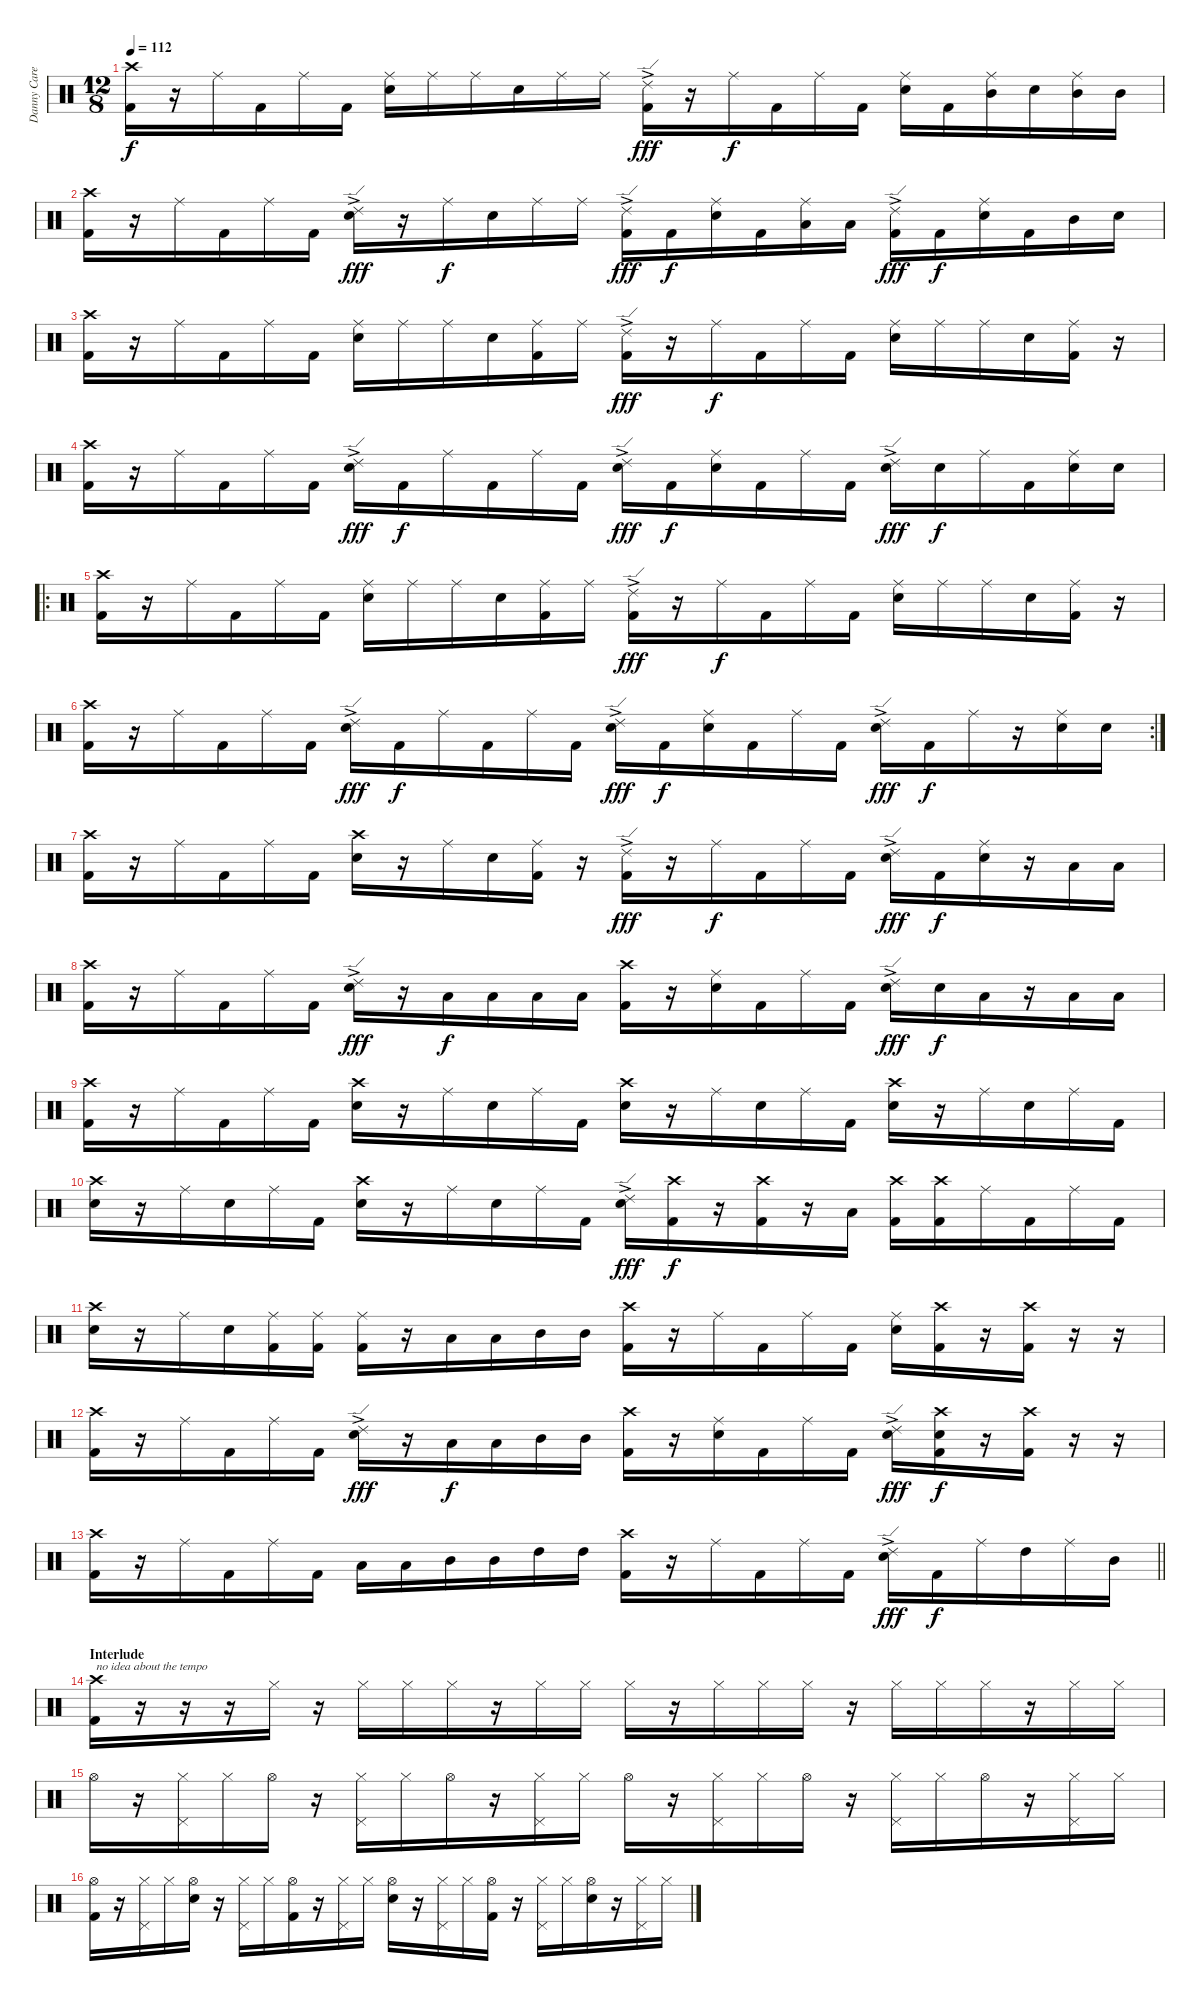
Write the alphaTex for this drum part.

\track ("Danny Carey" "Danny Care") {instrument percussion}
\staff {score}
\articulation defaults
\ts (12 8)
\tempo 112
\clef neutral
\ks c
("Crash high (hit)" "Kick (hit) 2").16{dy f} r.16 "Ride (middle)".16 "Kick (hit) 2".16 "Ride (middle)".16 "Kick (hit) 2".16 ("Ride (middle)" "Electric Snare (hit)").16 "Ride (middle)".16 "Ride (middle)".16 "Electric Snare (hit)".16 "Ride (middle)".16 "Ride (middle)".16 ("Ride (edge) 2"{ac} "Kick (hit) 2").16{dy fff} r.16 "Ride (middle)".16{dy f} "Kick (hit) 2".16 "Ride (middle)".16 "Kick (hit) 2".16 ("Ride (middle)" "Electric Snare (hit)").16 "Kick (hit) 2".16 ("Ride (middle)" "Mid Tom (hit)").16 "Electric Snare (hit)".16 ("Ride (middle)" "Mid Tom (hit)").16 "Mid Tom (hit)".16 |
("Crash high (hit)" "Kick (hit) 2").16 r.16 "Ride (middle)".16 "Kick (hit) 2".16 "Ride (middle)".16 "Kick (hit) 2".16 ("Ride (edge) 2"{ac} "Electric Snare (hit)").16{dy fff} r.16 "Ride (middle)".16{dy f} "Electric Snare (hit)".16 "Ride (middle)".16 "Ride (middle)".16 ("Ride (edge) 2"{ac} "Kick (hit) 2").16{dy fff} "Kick (hit) 2".16{dy f} ("Ride (middle)" "Electric Snare (hit)").16 "Kick (hit) 2".16 ("Ride (middle)" "Low Tom (hit)").16 "Low Tom (hit)".16 ("Ride (edge) 2"{ac} "Kick (hit) 2").16{dy fff} "Kick (hit) 2".16{dy f} ("Ride (middle)" "Electric Snare (hit)").16 "Kick (hit) 2".16 "Mid Tom (hit)".16 "Electric Snare (hit)".16 |
("Crash high (hit)" "Kick (hit) 2").16 r.16 "Ride (middle)".16 "Kick (hit) 2".16 "Ride (middle)".16 "Kick (hit) 2".16 ("Ride (middle)" "Electric Snare (hit)").16 "Ride (middle)".16 "Ride (middle)".16 "Electric Snare (hit)".16 ("Ride (middle)" "Kick (hit) 2").16 "Ride (middle)".16 ("Ride (edge) 2"{ac} "Kick (hit) 2").16{dy fff} r.16 "Ride (middle)".16{dy f} "Kick (hit) 2".16 "Ride (middle)".16 "Kick (hit) 2".16 ("Ride (middle)" "Electric Snare (hit)").16 "Ride (middle)".16 "Ride (middle)".16 "Electric Snare (hit)".16 ("Ride (middle)" "Kick (hit) 2").16 r.16 |
("Crash high (hit)" "Kick (hit) 2").16 r.16 "Ride (middle)".16 "Kick (hit) 2".16 "Ride (middle)".16 "Kick (hit) 2".16 ("Ride (edge) 2"{ac} "Electric Snare (hit)").16{dy fff} "Kick (hit) 2".16{dy f} "Ride (middle)".16 "Kick (hit) 2".16 "Ride (middle)".16 "Kick (hit) 2".16 ("Ride (edge) 2"{ac} "Electric Snare (hit)").16{dy fff} "Kick (hit) 2".16{dy f} ("Ride (middle)" "Electric Snare (hit)").16 "Kick (hit) 2".16 "Ride (middle)".16 "Kick (hit) 2".16 ("Ride (edge) 2"{ac} "Electric Snare (hit)").16{dy fff} "Electric Snare (hit)".16{dy f} "Ride (middle)".16 "Kick (hit) 2".16 ("Ride (middle)" "Electric Snare (hit)").16 "Electric Snare (hit)".16 |
\ro
("Crash high (hit)" "Kick (hit) 2").16{volume 16} r.16 "Ride (middle)".16 "Kick (hit) 2".16 "Ride (middle)".16 "Kick (hit) 2".16 ("Ride (middle)" "Electric Snare (hit)").16 "Ride (middle)".16 "Ride (middle)".16 "Electric Snare (hit)".16 ("Ride (middle)" "Kick (hit) 2").16 "Ride (middle)".16 ("Ride (edge) 2"{ac} "Kick (hit) 2").16{dy fff} r.16 "Ride (middle)".16{dy f} "Kick (hit) 2".16 "Ride (middle)".16 "Kick (hit) 2".16 ("Ride (middle)" "Electric Snare (hit)").16 "Ride (middle)".16 "Ride (middle)".16 "Electric Snare (hit)".16 ("Ride (middle)" "Kick (hit) 2").16 r.16 |
\rc 2
("Crash high (hit)" "Kick (hit) 2").16 r.16 "Ride (middle)".16 "Kick (hit) 2".16 "Ride (middle)".16 "Kick (hit) 2".16 ("Ride (edge) 2"{ac} "Electric Snare (hit)").16{dy fff} "Kick (hit) 2".16{dy f} "Ride (middle)".16 "Kick (hit) 2".16 "Ride (middle)".16 "Kick (hit) 2".16 ("Ride (edge) 2"{ac} "Electric Snare (hit)").16{dy fff} "Kick (hit) 2".16{dy f} ("Ride (middle)" "Electric Snare (hit)").16 "Kick (hit) 2".16 "Ride (middle)".16 "Kick (hit) 2".16 ("Ride (edge) 2"{ac} "Electric Snare (hit)").16{dy fff} "Kick (hit) 2".16{dy f} "Ride (middle)".16 r.16 ("Ride (middle)" "Electric Snare (hit)").16 "Electric Snare (hit)".16 |
("Crash high (hit)" "Kick (hit) 2").16 r.16 "Ride (middle)".16 "Kick (hit) 2".16 "Ride (middle)".16 "Kick (hit) 2".16 ("Crash high (hit)" "Electric Snare (hit)").16 r.16 "Ride (middle)".16 "Electric Snare (hit)".16 ("Ride (middle)" "Kick (hit) 2").16 r.16 ("Ride (edge) 2"{ac} "Kick (hit) 2").16{dy fff} r.16 "Ride (middle)".16{dy f} "Kick (hit) 2".16 "Ride (middle)".16 "Kick (hit) 2".16 ("Ride (edge) 2"{ac} "Electric Snare (hit)").16{dy fff} "Kick (hit) 2".16{dy f} ("Ride (middle)" "Electric Snare (hit)").16 r.16 "Low Tom (hit)".16 "Low Tom (hit)".16 |
("Crash high (hit)" "Kick (hit) 2").16 r.16 "Ride (middle)".16 "Kick (hit) 2".16 "Ride (middle)".16 "Kick (hit) 2".16 ("Ride (edge) 2"{ac} "Electric Snare (hit)").16{dy fff} r.16 "Low Tom (hit)".16{dy f} "Low Tom (hit)".16 "Low Floor Tom (hit)".16 "Low Floor Tom (hit)".16 ("Crash high (hit)" "Kick (hit) 2").16 r.16 ("Ride (middle)" "Electric Snare (hit)").16 "Kick (hit) 2".16 "Ride (middle)".16 "Kick (hit) 2".16 ("Ride (edge) 2"{ac} "Electric Snare (hit)").16{dy fff} "Electric Snare (hit)".16{dy f} "Low Floor Tom (hit)".16 r.16 "Low Tom (hit)".16 "Low Tom (hit)".16 |
("Crash high (hit)" "Kick (hit) 2").16 r.16 "Ride (middle)".16 "Kick (hit) 2".16 "Ride (middle)".16 "Kick (hit) 2".16 ("Crash high (hit)" "Electric Snare (hit)").16 r.16 "Ride (middle)".16 "Electric Snare (hit)".16 "Ride (middle)".16 "Kick (hit) 2".16 ("Crash high (hit)" "Electric Snare (hit)").16 r.16 "Ride (middle)".16 "Electric Snare (hit)".16 "Ride (middle)".16 "Kick (hit) 2".16 ("Crash high (hit)" "Electric Snare (hit)").16 r.16 "Ride (middle)".16 "Electric Snare (hit)".16 "Ride (middle)".16 "Kick (hit) 2".16 |
("Crash high (hit)" "Electric Snare (hit)").16 r.16 "Ride (middle)".16 "Electric Snare (hit)".16 "Ride (middle)".16 "Kick (hit) 2".16 ("Crash high (hit)" "Electric Snare (hit)").16 r.16 "Ride (middle)".16 "Electric Snare (hit)".16 "Ride (middle)".16 "Kick (hit) 2".16 ("Ride (edge) 2"{ac} "Electric Snare (hit)").16{dy fff} ("Crash high (hit)" "Kick (hit) 2").16{dy f} r.16 ("Crash high (hit)" "Kick (hit) 2").16 r.16 "Low Tom (hit)".16 ("Crash high (hit)" "Kick (hit) 2").16 ("Crash high (hit)" "Kick (hit) 2").16 "Ride (middle)".16 "Kick (hit) 2".16 "Ride (middle)".16 "Kick (hit) 2".16 |
("Crash high (hit)" "Electric Snare (hit)").16 r.16 "Ride (middle)".16 "Electric Snare (hit)".16 ("Ride (middle)" "Kick (hit) 2").16 ("Ride (middle)" "Kick (hit) 2").16 ("Ride (middle)" "Kick (hit) 2").16 r.16 "Low Tom (hit)".16 "Low Tom (hit)".16 "Mid Tom (hit)".16 "Mid Tom (hit)".16 ("Crash high (hit)" "Kick (hit) 2").16 r.16 "Ride (middle)".16 "Kick (hit) 2".16 "Ride (middle)".16 "Kick (hit) 2".16 ("Ride (middle)" "Electric Snare (hit)").16 ("Crash high (hit)" "Kick (hit) 2").16 r.16 ("Crash high (hit)" "Kick (hit) 2").16 r.16 r.16 |
("Crash high (hit)" "Kick (hit) 2").16 r.16 "Ride (middle)".16 "Kick (hit) 2".16 "Ride (middle)".16 "Kick (hit) 2".16 ("Ride (edge) 2"{ac} "Electric Snare (hit)").16{dy fff} r.16 "Low Tom (hit)".16{dy f} "Low Tom (hit)".16 "Mid Tom (hit)".16 "Mid Tom (hit)".16 ("Crash high (hit)" "Kick (hit) 2").16 r.16 ("Ride (middle)" "Electric Snare (hit)").16 "Kick (hit) 2".16 "Ride (middle)".16 "Kick (hit) 2".16 ("Ride (edge) 2"{ac} "Electric Snare (hit)").16{dy fff} ("Crash high (hit)" "Electric Snare (hit)" "Kick (hit) 2").16{dy f} r.16 ("Crash high (hit)" "Kick (hit) 2").16 r.16 r.16 |
\barLineRight lightlight
("Crash high (hit)" "Kick (hit) 2").16 r.16 "Ride (middle)".16 "Kick (hit) 2".16 "Ride (middle)".16 "Kick (hit) 2".16 "Low Tom (hit)".16 "Low Tom (hit)".16 "Mid Tom (hit)".16 "Mid Tom (hit)".16 "High Tom (hit)".16 "High Tom (hit)".16 ("Crash high (hit)" "Kick (hit) 2").16 r.16 "Ride (middle)".16 "Kick (hit) 2".16 "Ride (middle)".16 "Kick (hit) 2".16 ("Ride (edge) 2"{ac} "Electric Snare (hit)").16{dy fff} "Kick (hit) 2".16{dy f} "Ride (middle)".16 "High Tom (hit)".16 "Ride (middle)".16 "Mid Tom (hit)".16 |
\section ("" "Interlude")
("Crash high (hit)" "Kick (hit) 2").16{txt "no idea about the tempo"} r.16 r.16 r.16 "Hi-Hat (closed)".16 r.16 "Hi-Hat (closed)".16 "Hi-Hat (closed)".16 "Hi-Hat (closed)".16 r.16 "Hi-Hat (closed)".16 "Hi-Hat (closed)".16 "Hi-Hat (closed)".16 r.16 "Hi-Hat (closed)".16 "Hi-Hat (closed)".16 "Hi-Hat (closed)".16 r.16 "Hi-Hat (closed)".16 "Hi-Hat (closed)".16 "Hi-Hat (closed)".16 r.16 "Hi-Hat (closed)".16 "Hi-Hat (closed)".16 |
"Hi-Hat (open)".16 r.16 ("Hi-Hat (closed)" "Pedal Hi-Hat (hit)").16 "Hi-Hat (closed)".16 "Hi-Hat (open)".16 r.16 ("Hi-Hat (closed)" "Pedal Hi-Hat (hit)").16 "Hi-Hat (closed)".16 "Hi-Hat (open)".16 r.16 ("Hi-Hat (closed)" "Pedal Hi-Hat (hit)").16 "Hi-Hat (closed)".16 "Hi-Hat (open)".16 r.16 ("Hi-Hat (closed)" "Pedal Hi-Hat (hit)").16 "Hi-Hat (closed)".16 "Hi-Hat (open)".16 r.16 ("Hi-Hat (closed)" "Pedal Hi-Hat (hit)").16 "Hi-Hat (closed)".16 "Hi-Hat (open)".16 r.16 ("Hi-Hat (closed)" "Pedal Hi-Hat (hit)").16 "Hi-Hat (closed)".16 |
("Hi-Hat (open)" "Kick (hit) 2").16 r.16 ("Hi-Hat (closed)" "Pedal Hi-Hat (hit)").16 "Hi-Hat (closed)".16 ("Hi-Hat (open)" "Electric Snare (hit)").16 r.16 ("Hi-Hat (closed)" "Pedal Hi-Hat (hit)").16 "Hi-Hat (closed)".16 ("Hi-Hat (open)" "Kick (hit) 2").16 r.16 ("Hi-Hat (closed)" "Pedal Hi-Hat (hit)").16 "Hi-Hat (closed)".16 ("Hi-Hat (open)" "Electric Snare (hit)").16 r.16 ("Hi-Hat (closed)" "Pedal Hi-Hat (hit)").16 "Hi-Hat (closed)".16 ("Hi-Hat (open)" "Kick (hit) 2").16 r.16 ("Hi-Hat (closed)" "Pedal Hi-Hat (hit)").16 "Hi-Hat (closed)".16 ("Hi-Hat (open)" "Electric Snare (hit)").16 r.16 ("Hi-Hat (closed)" "Pedal Hi-Hat (hit)").16 "Hi-Hat (closed)".16
